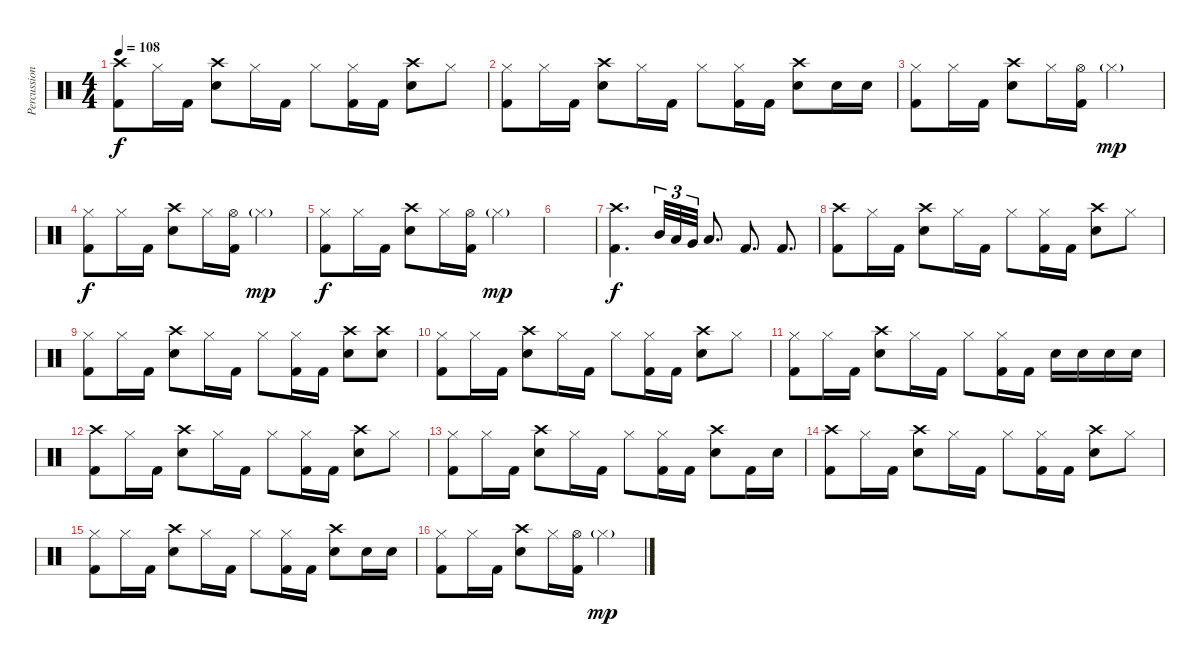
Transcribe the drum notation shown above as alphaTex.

\track ("Percussion" "Percussion") {instrument percussion}
\staff {score}
\articulation defaults
\ts (4 4)
\tempo 108
\clef neutral
\ks c
("Crash high (hit)" "Kick (hit) 2").8{dy f} "Hi-Hat (closed)".16 "Kick (hit) 2".16 ("Crash high (hit)" "Snare (hit) 2").8 "Hi-Hat (closed)".16 "Kick (hit) 2".16 "Hi-Hat (closed)".8 ("Hi-Hat (closed)" "Kick (hit) 2").16 "Kick (hit) 2".16 ("Crash high (hit)" "Snare (hit) 2").8 "Hi-Hat (closed)".8 |
("Hi-Hat (closed)" "Kick (hit) 2").8 "Hi-Hat (closed)".16 "Kick (hit) 2".16 ("Crash high (hit)" "Snare (hit) 2").8 "Hi-Hat (closed)".16 "Kick (hit) 2".16 "Hi-Hat (closed)".8 ("Hi-Hat (closed)" "Kick (hit) 2").16 "Kick (hit) 2".16 ("Crash high (hit)" "Snare (hit) 2").8 "Snare (hit) 2".16 "Snare (hit) 2".16 |
("Hi-Hat (closed)" "Kick (hit) 2").8 "Hi-Hat (closed)".16 "Kick (hit) 2".16 ("Crash high (hit)" "Snare (hit) 2").8 "Hi-Hat (closed)".16 ("Hi-Hat (open)" "Kick (hit) 2").16 "Hi-Hat (closed)"{g}.2{dy mp} |
("Hi-Hat (closed)" "Kick (hit) 2").8{dy f} "Hi-Hat (closed)".16 "Kick (hit) 2".16 ("Crash high (hit)" "Snare (hit) 2").8 "Hi-Hat (closed)".16 ("Hi-Hat (open)" "Kick (hit) 2").16 "Hi-Hat (closed)"{g}.2{dy mp} |
("Hi-Hat (closed)" "Kick (hit) 2").8{dy f} "Hi-Hat (closed)".16 "Kick (hit) 2".16 ("Crash high (hit)" "Snare (hit) 2").8 "Hi-Hat (closed)".16 ("Hi-Hat (open)" "Kick (hit) 2").16 "Hi-Hat (closed)"{g}.2{dy mp} |
|
("Crash high (hit)" "Kick (hit) 2").4{d dy f} "Mid Tom (hit)".32{tu (3 2)} "Low Tom (hit)".32{tu (3 2)} "Very Low Tom (hit)".32{tu (3 2)} "Low Floor Tom (hit)".8{d} "Kick (hit) 2".8{d} "Kick (hit) 2".8{d} |
("Crash high (hit)" "Kick (hit) 2").8 "Hi-Hat (closed)".16 "Kick (hit) 2".16 ("Crash high (hit)" "Snare (hit) 2").8 "Hi-Hat (closed)".16 "Kick (hit) 2".16 "Hi-Hat (closed)".8 ("Hi-Hat (closed)" "Kick (hit) 2").16 "Kick (hit) 2".16 ("Crash high (hit)" "Snare (hit) 2").8 "Hi-Hat (closed)".8 |
("Hi-Hat (closed)" "Kick (hit) 2").8 "Hi-Hat (closed)".16 "Kick (hit) 2".16 ("Crash high (hit)" "Snare (hit) 2").8 "Hi-Hat (closed)".16 "Kick (hit) 2".16 "Hi-Hat (closed)".8 ("Hi-Hat (closed)" "Kick (hit) 2").16 "Kick (hit) 2".16 ("Crash high (hit)" "Snare (hit) 2").8 ("Crash high (hit)" "Snare (hit) 2").8 |
("Hi-Hat (closed)" "Kick (hit) 2").8 "Hi-Hat (closed)".16 "Kick (hit) 2".16 ("Crash high (hit)" "Snare (hit) 2").8 "Hi-Hat (closed)".16 "Kick (hit) 2".16 "Hi-Hat (closed)".8 ("Hi-Hat (closed)" "Kick (hit) 2").16 "Kick (hit) 2".16 ("Crash high (hit)" "Snare (hit) 2").8 "Hi-Hat (closed)".8 |
("Hi-Hat (closed)" "Kick (hit) 2").8 "Hi-Hat (closed)".16 "Kick (hit) 2".16 ("Crash high (hit)" "Snare (hit) 2").8 "Hi-Hat (closed)".16 "Kick (hit) 2".16 "Hi-Hat (closed)".8 ("Hi-Hat (closed)" "Kick (hit) 2").16 "Kick (hit) 2".16 "Snare (hit) 2".16 "Snare (hit) 2".16 "Snare (hit) 2".16 "Snare (hit) 2".16 |
("Crash high (hit)" "Kick (hit) 2").8 "Hi-Hat (closed)".16 "Kick (hit) 2".16 ("Crash high (hit)" "Snare (hit) 2").8 "Hi-Hat (closed)".16 "Kick (hit) 2".16 "Hi-Hat (closed)".8 ("Hi-Hat (closed)" "Kick (hit) 2").16 "Kick (hit) 2".16 ("Crash high (hit)" "Snare (hit) 2").8 "Hi-Hat (closed)".8 |
("Hi-Hat (closed)" "Kick (hit) 2").8 "Hi-Hat (closed)".16 "Kick (hit) 2".16 ("Crash high (hit)" "Snare (hit) 2").8 "Hi-Hat (closed)".16 "Kick (hit) 2".16 "Hi-Hat (closed)".8 ("Hi-Hat (closed)" "Kick (hit) 2").16 "Kick (hit) 2".16 ("Crash high (hit)" "Snare (hit) 2").8 "Kick (hit) 2".16 "Snare (hit) 2".16 |
("Crash high (hit)" "Kick (hit) 2").8 "Hi-Hat (closed)".16 "Kick (hit) 2".16 ("Crash high (hit)" "Snare (hit) 2").8 "Hi-Hat (closed)".16 "Kick (hit) 2".16 "Hi-Hat (closed)".8 ("Hi-Hat (closed)" "Kick (hit) 2").16 "Kick (hit) 2".16 ("Crash high (hit)" "Snare (hit) 2").8 "Hi-Hat (closed)".8 |
("Hi-Hat (closed)" "Kick (hit) 2").8 "Hi-Hat (closed)".16 "Kick (hit) 2".16 ("Crash high (hit)" "Snare (hit) 2").8 "Hi-Hat (closed)".16 "Kick (hit) 2".16 "Hi-Hat (closed)".8 ("Hi-Hat (closed)" "Kick (hit) 2").16 "Kick (hit) 2".16 ("Crash high (hit)" "Snare (hit) 2").8 "Snare (hit) 2".16 "Snare (hit) 2".16 |
("Hi-Hat (closed)" "Kick (hit) 2").8 "Hi-Hat (closed)".16 "Kick (hit) 2".16 ("Crash high (hit)" "Snare (hit) 2").8 "Hi-Hat (closed)".16 ("Hi-Hat (open)" "Kick (hit) 2").16 "Hi-Hat (closed)"{g}.2{dy mp}
